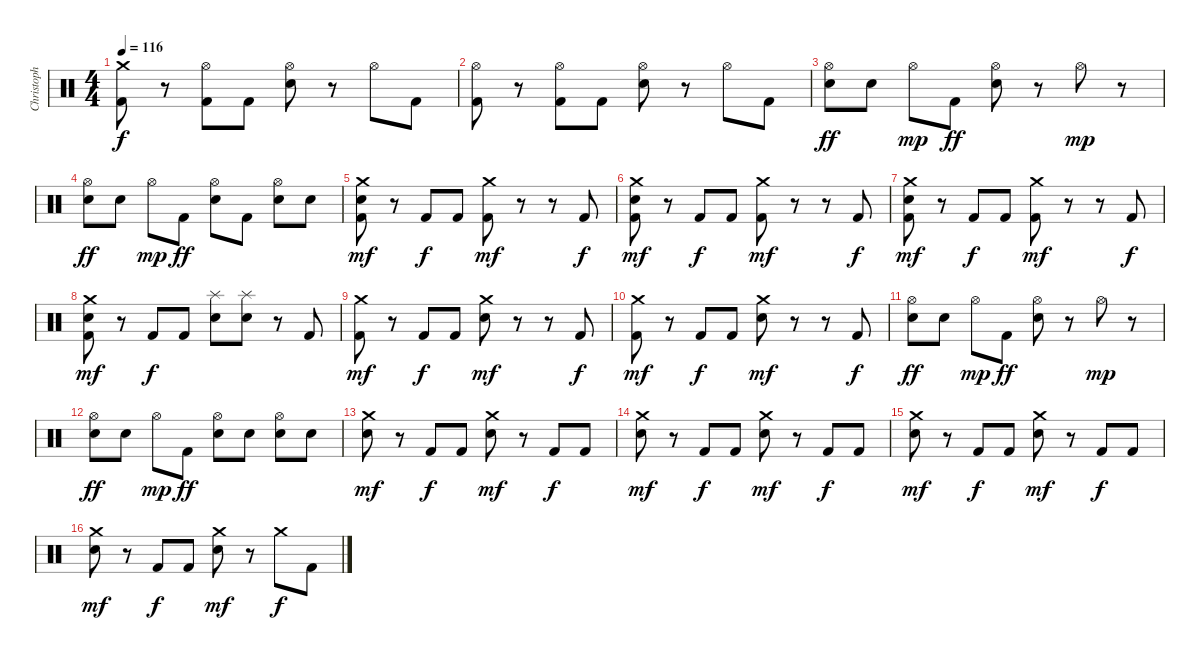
\track ("Christoph Schneider" "Christoph ") {instrument percussion}
\staff {score}
\articulation defaults
\ts (4 4)
\tempo 116
\clef neutral
\ks c
("Crash medium (hit)" "Kick (hit) 2").8{dy f} r.8 ("Hi-Hat (open)" "Kick (hit) 2").8 "Kick (hit) 2".8 ("Hi-Hat (open)" "Snare (hit) 2").8 r.8 "Hi-Hat (open)".8 "Kick (hit) 2".8 |
("Hi-Hat (open)" "Kick (hit) 2").8 r.8 ("Hi-Hat (open)" "Kick (hit) 2").8 "Kick (hit) 2".8 ("Hi-Hat (open)" "Snare (hit) 2").8 r.8 "Hi-Hat (open)".8 "Kick (hit) 2".8 |
("Hi-Hat (open)" "Snare (hit) 2").8{dy ff} "Snare (hit) 2".8 "Hi-Hat (open)".8{dy mp} "Kick (hit) 2".8{dy ff} ("Hi-Hat (open)" "Snare (hit) 2").8 r.8 "Hi-Hat (open)".8{dy mp} r.8 |
("Hi-Hat (open)" "Snare (hit) 2").8{dy ff} "Snare (hit) 2".8 "Hi-Hat (open)".8{dy mp} "Kick (hit) 2".8{dy ff} ("Hi-Hat (open)" "Snare (hit) 2").8 "Kick (hit) 2".8 ("Hi-Hat (open)" "Snare (hit) 2").8 "Snare (hit) 2".8 |
("Crash medium (hit)" "Kick (hit) 2" "Snare (hit) 2").8{dy mf} r.8 "Kick (hit) 2".8{dy f} "Kick (hit) 2".8 ("Crash medium (hit)" "Kick (hit) 2").8{dy mf} r.8 r.8 "Kick (hit) 2".8{dy f} |
("Crash medium (hit)" "Kick (hit) 2" "Snare (hit) 2").8{dy mf} r.8 "Kick (hit) 2".8{dy f} "Kick (hit) 2".8 ("Crash medium (hit)" "Kick (hit) 2").8{dy mf} r.8 r.8 "Kick (hit) 2".8{dy f} |
("Crash medium (hit)" "Kick (hit) 2" "Snare (hit) 2").8{dy mf} r.8 "Kick (hit) 2".8{dy f} "Kick (hit) 2".8 ("Crash medium (hit)" "Kick (hit) 2").8{dy mf} r.8 r.8 "Kick (hit) 2".8{dy f} |
("Crash medium (hit)" "Kick (hit) 2" "Snare (hit) 2").8{dy mf} r.8 "Kick (hit) 2".8{dy f} "Kick (hit) 2".8 ("Splash (hit)" "Snare (hit) 2").8 ("Splash (hit)" "Snare (hit) 2").8 r.8 "Kick (hit) 2".8 |
("Crash medium (hit)" "Kick (hit) 2").8{dy mf} r.8 "Kick (hit) 2".8{dy f} "Kick (hit) 2".8 ("Crash medium (hit)" "Snare (hit) 2").8{dy mf} r.8 r.8 "Kick (hit) 2".8{dy f} |
("Crash medium (hit)" "Kick (hit) 2").8{dy mf} r.8 "Kick (hit) 2".8{dy f} "Kick (hit) 2".8 ("Crash medium (hit)" "Snare (hit) 2").8{dy mf} r.8 r.8 "Kick (hit) 2".8{dy f} |
("Hi-Hat (open)" "Snare (hit) 2").8{dy ff} "Snare (hit) 2".8 "Hi-Hat (open)".8{dy mp} "Kick (hit) 2".8{dy ff} ("Hi-Hat (open)" "Snare (hit) 2").8 r.8 "Hi-Hat (open)".8{dy mp} r.8 |
("Hi-Hat (open)" "Snare (hit) 2").8{dy ff} "Snare (hit) 2".8 "Hi-Hat (open)".8{dy mp} "Kick (hit) 2".8{dy ff} ("Hi-Hat (open)" "Snare (hit) 2").8 "Snare (hit) 2".8 ("Hi-Hat (open)" "Snare (hit) 2").8 "Snare (hit) 2".8 |
("Crash medium (hit)" "Snare (hit) 2").8{dy mf} r.8 "Kick (hit) 2".8{dy f} "Kick (hit) 2".8 ("Crash medium (hit)" "Snare (hit) 2").8{dy mf} r.8 "Kick (hit) 2".8{dy f} "Kick (hit) 2".8 |
("Crash medium (hit)" "Snare (hit) 2").8{dy mf} r.8 "Kick (hit) 2".8{dy f} "Kick (hit) 2".8 ("Crash medium (hit)" "Snare (hit) 2").8{dy mf} r.8 "Kick (hit) 2".8{dy f} "Kick (hit) 2".8 |
("Crash medium (hit)" "Snare (hit) 2").8{dy mf} r.8 "Kick (hit) 2".8{dy f} "Kick (hit) 2".8 ("Crash medium (hit)" "Snare (hit) 2").8{dy mf} r.8 "Kick (hit) 2".8{dy f} "Kick (hit) 2".8 |
("Crash medium (hit)" "Snare (hit) 2").8{dy mf} r.8 "Kick (hit) 2".8{dy f} "Kick (hit) 2".8 ("Crash medium (hit)" "Snare (hit) 2").8{dy mf} r.8 "Crash medium (hit)".8{dy f} "Kick (hit) 2".8
